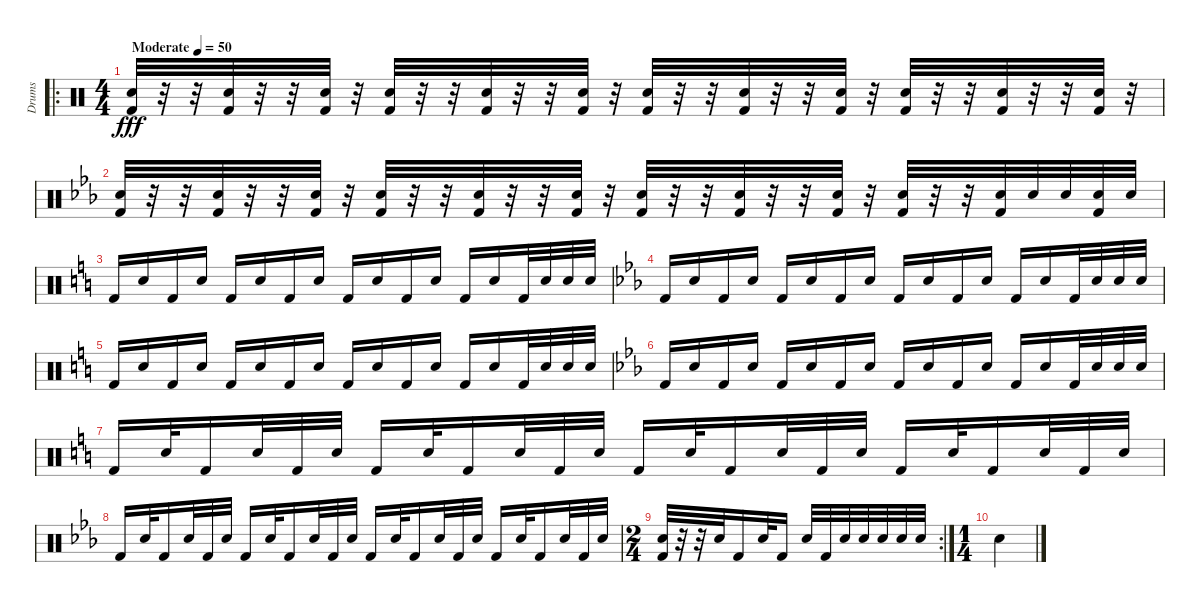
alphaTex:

\track ("Drums" "Drums") {instrument percussion}
\staff
\articulation defaults
\ro
\ts (4 4)
\tempo (50 "Moderate")
\clef neutral
\ks aminor
("Kick (hit) 2" "Snare (hit) 2").32{dy fff} r.32 r.32 ("Kick (hit) 2" "Snare (hit) 2").32 r.32 r.32 ("Kick (hit) 2" "Snare (hit) 2").32 r.32 ("Kick (hit) 2" "Snare (hit) 2").32 r.32 r.32 ("Kick (hit) 2" "Snare (hit) 2").32 r.32 r.32 ("Kick (hit) 2" "Snare (hit) 2").32 r.32 ("Kick (hit) 2" "Snare (hit) 2").32 r.32 r.32 ("Kick (hit) 2" "Snare (hit) 2").32 r.32 r.32 ("Kick (hit) 2" "Snare (hit) 2").32 r.32 ("Kick (hit) 2" "Snare (hit) 2").32 r.32 r.32 ("Kick (hit) 2" "Snare (hit) 2").32 r.32 r.32 ("Kick (hit) 2" "Snare (hit) 2").32 r.32 |
\ks cminor
("Kick (hit) 2" "Snare (hit) 2").32 r.32 r.32 ("Kick (hit) 2" "Snare (hit) 2").32 r.32 r.32 ("Kick (hit) 2" "Snare (hit) 2").32 r.32 ("Kick (hit) 2" "Snare (hit) 2").32 r.32 r.32 ("Kick (hit) 2" "Snare (hit) 2").32 r.32 r.32 ("Kick (hit) 2" "Snare (hit) 2").32 r.32 ("Kick (hit) 2" "Snare (hit) 2").32 r.32 r.32 ("Kick (hit) 2" "Snare (hit) 2").32 r.32 r.32 ("Kick (hit) 2" "Snare (hit) 2").32 r.32 ("Kick (hit) 2" "Snare (hit) 2").32 r.32 r.32 ("Kick (hit) 2" "Snare (hit) 2").32 "Snare (hit) 2".32 "Snare (hit) 2".32 ("Kick (hit) 2" "Snare (hit) 2").32 "Snare (hit) 2".32 |
\ks aminor "Kick (hit) 2".16 "Snare (hit) 2".16 "Kick (hit) 2".16 "Snare (hit) 2".16 "Kick (hit) 2".16 "Snare (hit) 2".16 "Kick (hit) 2".16 "Snare (hit) 2".16 "Kick (hit) 2".16 "Snare (hit) 2".16 "Kick (hit) 2".16 "Snare (hit) 2".16 "Kick (hit) 2".16 "Snare (hit) 2".16 "Kick (hit) 2".32 "Snare (hit) 2".32 "Snare (hit) 2".32 "Snare (hit) 2".32
|
\ks cminor "Kick (hit) 2".16 "Snare (hit) 2".16 "Kick (hit) 2".16 "Snare (hit) 2".16 "Kick (hit) 2".16 "Snare (hit) 2".16 "Kick (hit) 2".16 "Snare (hit) 2".16 "Kick (hit) 2".16 "Snare (hit) 2".16 "Kick (hit) 2".16 "Snare (hit) 2".16 "Kick (hit) 2".16 "Snare (hit) 2".16 "Kick (hit) 2".32 "Snare (hit) 2".32 "Snare (hit) 2".32 "Snare (hit) 2".32
|
\ks aminor "Kick (hit) 2".16 "Snare (hit) 2".16 "Kick (hit) 2".16 "Snare (hit) 2".16 "Kick (hit) 2".16 "Snare (hit) 2".16 "Kick (hit) 2".16 "Snare (hit) 2".16 "Kick (hit) 2".16 "Snare (hit) 2".16 "Kick (hit) 2".16 "Snare (hit) 2".16 "Kick (hit) 2".16 "Snare (hit) 2".16 "Kick (hit) 2".32 "Snare (hit) 2".32 "Snare (hit) 2".32 "Snare (hit) 2".32
|
\ks cminor "Kick (hit) 2".16 "Snare (hit) 2".16 "Kick (hit) 2".16 "Snare (hit) 2".16 "Kick (hit) 2".16 "Snare (hit) 2".16 "Kick (hit) 2".16 "Snare (hit) 2".16 "Kick (hit) 2".16 "Snare (hit) 2".16 "Kick (hit) 2".16 "Snare (hit) 2".16 "Kick (hit) 2".16 "Snare (hit) 2".16 "Kick (hit) 2".32 "Snare (hit) 2".32 "Snare (hit) 2".32 "Snare (hit) 2".32
|
\ks aminor "Kick (hit) 2".16 "Snare (hit) 2".32 "Kick (hit) 2".16 "Snare (hit) 2".32 "Kick (hit) 2".32 "Snare (hit) 2".32 "Kick (hit) 2".16 "Snare (hit) 2".32 "Kick (hit) 2".16 "Snare (hit) 2".32 "Kick (hit) 2".32 "Snare (hit) 2".32 "Kick (hit) 2".16 "Snare (hit) 2".32 "Kick (hit) 2".16 "Snare (hit) 2".32 "Kick (hit) 2".32 "Snare (hit) 2".32 "Kick (hit) 2".16 "Snare (hit) 2".32 "Kick (hit) 2".16 "Snare (hit) 2".32 "Kick (hit) 2".32 "Snare (hit) 2".32
|
\ks cminor "Kick (hit) 2".16 "Snare (hit) 2".32 "Kick (hit) 2".16 "Snare (hit) 2".32 "Kick (hit) 2".32 "Snare (hit) 2".32 "Kick (hit) 2".16 "Snare (hit) 2".32 "Kick (hit) 2".16 "Snare (hit) 2".32 "Kick (hit) 2".32 "Snare (hit) 2".32 "Kick (hit) 2".16 "Snare (hit) 2".32 "Kick (hit) 2".16 "Snare (hit) 2".32 "Kick (hit) 2".32 "Snare (hit) 2".32 "Kick (hit) 2".16 "Snare (hit) 2".32 "Kick (hit) 2".16 "Snare (hit) 2".32 "Kick (hit) 2".32 "Snare (hit) 2".32
|
\rc 2
\ts (2 4)
("Kick (hit) 2" "Snare (hit) 2").32 r.32 r.32 "Snare (hit) 2".32 "Kick (hit) 2".16 "Snare (hit) 2".32 "Kick (hit) 2".16 "Snare (hit) 2".32 "Kick (hit) 2".32 "Snare (hit) 2".32 "Snare (hit) 2".32 "Snare (hit) 2".32 "Snare (hit) 2".32 "Snare (hit) 2".32 |
\ts (1 4)
"Snare (hit) 2".4
